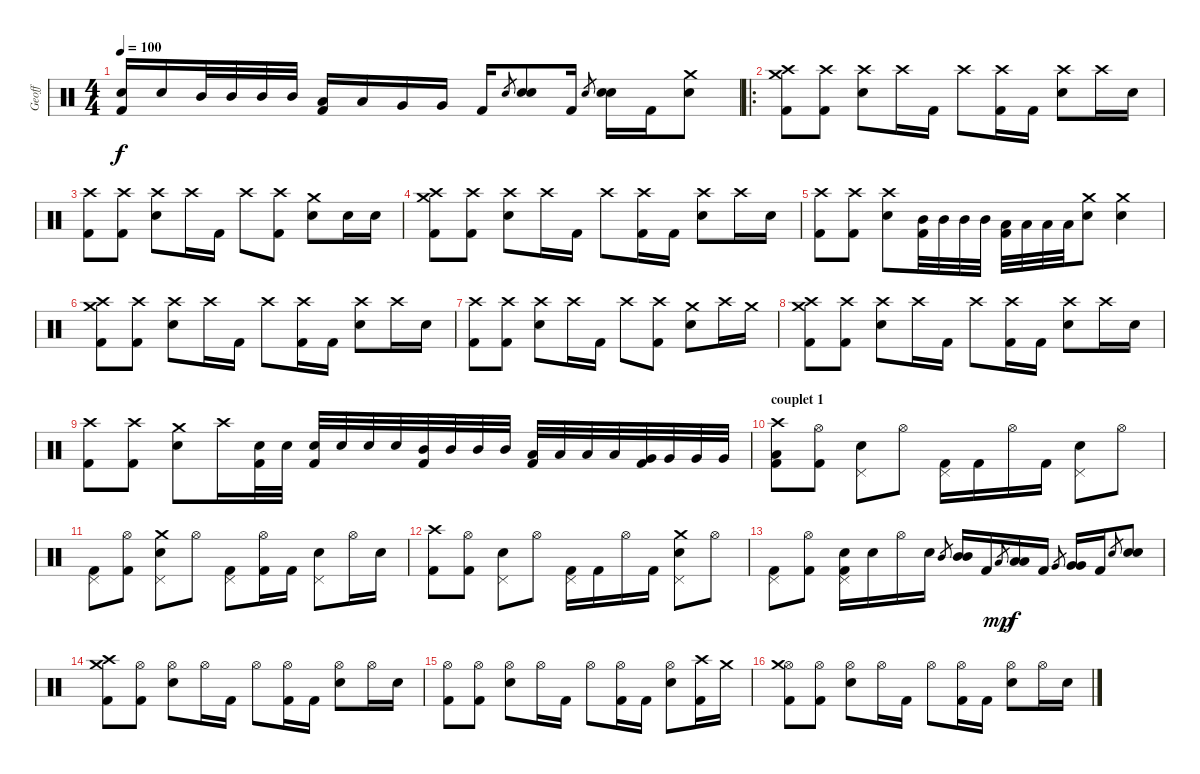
\track ("Geoff" "Geoff") {instrument percussion}
\staff {score}
\articulation defaults
\ts (4 4)
\tempo 100
\clef neutral
\ks c
("Electric Snare (hit)" "Kick (hit) 2").16{dy f} "Electric Snare (hit)".16 "Mid Tom (hit)".32 "Mid Tom (hit)".32 "Mid Tom (hit)".32 "Mid Tom (hit)".32 ("Low Tom (hit)" "Kick (hit) 2").16 "Low Tom (hit)".16 "Very Low Tom (hit)".16 "Very Low Tom (hit)".16 "Kick (hit) 2".16 "Electric Snare (hit)".8{gr} ("Electric Snare (hit)" "Electric Snare (hit)").8 "Kick (hit) 2".16 "Electric Snare (hit)".8{gr} ("Electric Snare (hit)" "Electric Snare (hit)").16 "Kick (hit) 2".16 ("Crash medium (hit)" "Electric Snare (hit)").8 |
\ro
("Crash high (hit)" "Crash medium (hit)" "Kick (hit) 2").8 ("Crash high (hit)" "Kick (hit) 2").8 ("Crash high (hit)" "Electric Snare (hit)").8 "Crash high (hit)".16 "Kick (hit) 2".16 "Crash high (hit)".8 ("Crash high (hit)" "Kick (hit) 2").16 "Kick (hit) 2".16 ("Crash high (hit)" "Electric Snare (hit)").8 "Crash high (hit)".16 "Electric Snare (hit)".16 |
("Crash high (hit)" "Kick (hit) 2").8 ("Crash high (hit)" "Kick (hit) 2").8 ("Crash high (hit)" "Electric Snare (hit)").8 "Crash high (hit)".16 "Kick (hit) 2".16 "Crash high (hit)".8 ("Crash high (hit)" "Kick (hit) 2").8 ("Crash medium (hit)" "Electric Snare (hit)").8 "Electric Snare (hit)".16 "Electric Snare (hit)".16 |
("Crash high (hit)" "Crash medium (hit)" "Kick (hit) 2").8 ("Crash high (hit)" "Kick (hit) 2").8 ("Crash high (hit)" "Electric Snare (hit)").8 "Crash high (hit)".16 "Kick (hit) 2".16 "Crash high (hit)".8 ("Crash high (hit)" "Kick (hit) 2").16 "Kick (hit) 2".16 ("Crash high (hit)" "Electric Snare (hit)").8 "Crash high (hit)".16 "Electric Snare (hit)".16 |
("Crash high (hit)" "Kick (hit) 2").8 ("Crash high (hit)" "Kick (hit) 2").8 ("Crash high (hit)" "Electric Snare (hit)").8 ("Mid Tom (hit)" "Kick (hit) 2").32 "Mid Tom (hit)".32 "Mid Tom (hit)".32 "Mid Tom (hit)".32 ("Low Tom (hit)" "Kick (hit) 2").32 "Low Tom (hit)".32 "Low Tom (hit)".32 "Low Tom (hit)".32 ("Crash medium (hit)" "Electric Snare (hit)").8 ("Crash medium (hit)" "Electric Snare (hit)").4 |
("Crash high (hit)" "Crash medium (hit)" "Kick (hit) 2").8 ("Crash high (hit)" "Kick (hit) 2").8 ("Crash high (hit)" "Electric Snare (hit)").8 "Crash high (hit)".16 "Kick (hit) 2".16 "Crash high (hit)".8 ("Crash high (hit)" "Kick (hit) 2").16 "Kick (hit) 2".16 ("Crash high (hit)" "Electric Snare (hit)").8 "Crash high (hit)".16 "Electric Snare (hit)".16 |
("Crash high (hit)" "Kick (hit) 2").8 ("Crash high (hit)" "Kick (hit) 2").8 ("Crash high (hit)" "Electric Snare (hit)").8 "Crash high (hit)".16 "Kick (hit) 2".16 "Crash high (hit)".8 ("Crash high (hit)" "Kick (hit) 2").8 ("Crash medium (hit)" "Electric Snare (hit)").8 "Crash high (hit)".16 "Crash medium (hit)".16 |
("Crash high (hit)" "Crash medium (hit)" "Kick (hit) 2").8 ("Crash high (hit)" "Kick (hit) 2").8 ("Crash high (hit)" "Electric Snare (hit)").8 "Crash high (hit)".16 "Kick (hit) 2".16 "Crash high (hit)".8 ("Crash high (hit)" "Kick (hit) 2").16 "Kick (hit) 2".16 ("Crash high (hit)" "Electric Snare (hit)").8 "Crash high (hit)".16 "Electric Snare (hit)".16 |
("Crash high (hit)" "Kick (hit) 2").8 ("Crash high (hit)" "Kick (hit) 2").8 ("Crash medium (hit)" "Electric Snare (hit)").8 "Crash high (hit)".16 ("Electric Snare (hit)" "Kick (hit) 2").32 "Electric Snare (hit)".32 ("Electric Snare (hit)" "Kick (hit) 2").32 "Electric Snare (hit)".32 "Electric Snare (hit)".32 "Electric Snare (hit)".32 ("Mid Tom (hit)" "Kick (hit) 2").32 "Mid Tom (hit)".32 "Mid Tom (hit)".32 "Mid Tom (hit)".32 ("Low Tom (hit)" "Kick (hit) 2").32 "Low Tom (hit)".32 "Low Tom (hit)".32 "Low Tom (hit)".32 ("Very Low Tom (hit)" "Kick (hit) 2").32 "Very Low Tom (hit)".32 "Very Low Tom (hit)".32 "Very Low Tom (hit)".32 |
\section ("" "couplet 1")
("Crash high (hit)" "Low Tom (hit)" "Kick (hit) 2").8 ("Hi-Hat (open)" "Kick (hit) 2").8 ("Electric Snare (hit)" "Pedal Hi-Hat (hit)").8 "Hi-Hat (open)".8 ("Pedal Hi-Hat (hit)" "Kick (hit) 2").16 "Kick (hit) 2".16 "Hi-Hat (open)".16 "Kick (hit) 2".16 ("Electric Snare (hit)" "Pedal Hi-Hat (hit)").8 "Hi-Hat (open)".8 |
("Pedal Hi-Hat (hit)" "Kick (hit) 2").8 ("Hi-Hat (open)" "Kick (hit) 2").8 ("Crash medium (hit)" "Electric Snare (hit)" "Pedal Hi-Hat (hit)").8 "Hi-Hat (open)".8 ("Pedal Hi-Hat (hit)" "Kick (hit) 2").8 ("Hi-Hat (open)" "Kick (hit) 2").16 "Kick (hit) 2".16 ("Electric Snare (hit)" "Pedal Hi-Hat (hit)").8 "Hi-Hat (open)".16 "Electric Snare (hit)".16 |
("Crash high (hit)" "Kick (hit) 2").8 ("Hi-Hat (open)" "Kick (hit) 2").8 ("Electric Snare (hit)" "Pedal Hi-Hat (hit)").8 "Hi-Hat (open)".8 ("Pedal Hi-Hat (hit)" "Kick (hit) 2").16 "Kick (hit) 2".16 "Hi-Hat (open)".16 "Kick (hit) 2".16 ("Crash medium (hit)" "Electric Snare (hit)" "Pedal Hi-Hat (hit)").8 "Hi-Hat (open)".8 |
("Pedal Hi-Hat (hit)" "Kick (hit) 2").8 ("Hi-Hat (open)" "Kick (hit) 2").8 ("Electric Snare (hit)" "Pedal Hi-Hat (hit)" "Kick (hit) 2").16 "Electric Snare (hit)".16 "Hi-Hat (open)".16 "Electric Snare (hit)".16 "Mid Tom (hit)".8{gr} ("Mid Tom (hit)" "Mid Tom (hit)").16 "Kick (hit) 2".16 "Low Tom (hit)".8{gr dy mp} ("Low Tom (hit)" "Low Tom (hit)").16{dy f} "Kick (hit) 2".16 "Very Low Tom (hit)".8{gr} ("Very Low Tom (hit)" "Very Low Tom (hit)").16 "Kick (hit) 2".16 "Electric Snare (hit)".8{gr} ("Electric Snare (hit)" "Electric Snare (hit)").8 |
("Crash high (hit)" "Crash medium (hit)" "Kick (hit) 2").8 ("Hi-Hat (open)" "Kick (hit) 2").8 ("Hi-Hat (open)" "Electric Snare (hit)").8 "Hi-Hat (open)".16 "Kick (hit) 2".16 "Hi-Hat (open)".8 ("Hi-Hat (open)" "Kick (hit) 2").16 "Kick (hit) 2".16 ("Hi-Hat (open)" "Electric Snare (hit)").8 "Hi-Hat (open)".16 "Electric Snare (hit)".16 |
("Hi-Hat (open)" "Kick (hit) 2").8 ("Hi-Hat (open)" "Kick (hit) 2").8 ("Hi-Hat (open)" "Electric Snare (hit)").8 "Hi-Hat (open)".16 "Kick (hit) 2".16 "Hi-Hat (open)".8 ("Hi-Hat (open)" "Kick (hit) 2").16 "Kick (hit) 2".16 ("Hi-Hat (open)" "Electric Snare (hit)").8 ("Crash high (hit)" "Kick (hit) 2").16 "Crash medium (hit)".16 |
("Hi-Hat (open)" "Crash medium (hit)" "Kick (hit) 2").8 ("Hi-Hat (open)" "Kick (hit) 2").8 ("Hi-Hat (open)" "Electric Snare (hit)").8 "Hi-Hat (open)".16 "Kick (hit) 2".16 "Hi-Hat (open)".8 ("Hi-Hat (open)" "Kick (hit) 2").16 "Kick (hit) 2".16 ("Hi-Hat (open)" "Electric Snare (hit)").8 "Hi-Hat (open)".16 "Electric Snare (hit)".16
